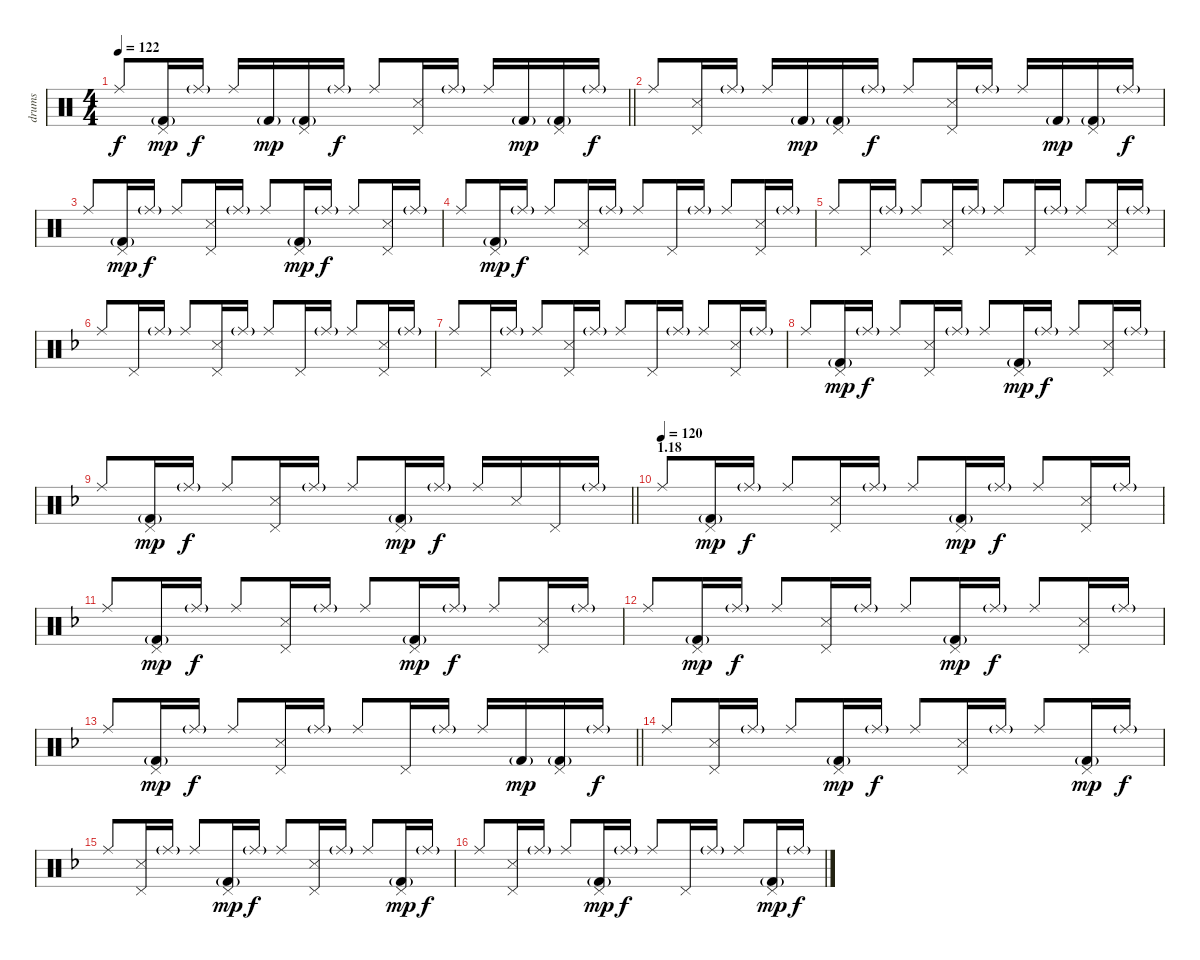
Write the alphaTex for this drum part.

\track ("drums" "drums") {instrument percussion}
\staff {score}
\articulation defaults
\ts (4 4)
\tempo 122
\clef neutral
\barLineRight lightlight
\ks c "Ride (middle)".8{dy f}
("Pedal Hi-Hat (hit)" "Kick (hit) 2"{g}).16{dy mp} "Ride (middle)"{g}.16{dy f} "Ride (middle)".16 "Kick (hit) 2"{g}.16{dy mp} ("Pedal Hi-Hat (hit)" "Kick (hit) 2"{g}).16 "Ride (middle)"{g}.16{dy f} "Ride (middle)".8 ("Pedal Hi-Hat (hit)" "Snare (side stick) 3").16 "Ride (middle)"{g}.16 "Ride (middle)".16 "Kick (hit) 2"{g}.16{dy mp} ("Pedal Hi-Hat (hit)" "Kick (hit) 2"{g}).16 "Ride (middle)"{g}.16{dy f} |
"Ride (middle)".8 ("Pedal Hi-Hat (hit)" "Snare (side stick) 3").16 "Ride (middle)"{g}.16 "Ride (middle)".16 "Kick (hit) 2"{g}.16{dy mp} ("Pedal Hi-Hat (hit)" "Kick (hit) 2"{g}).16 "Ride (middle)"{g}.16{dy f} "Ride (middle)".8 ("Pedal Hi-Hat (hit)" "Snare (side stick) 3").16 "Ride (middle)"{g}.16 "Ride (middle)".16 "Kick (hit) 2"{g}.16{dy mp} ("Pedal Hi-Hat (hit)" "Kick (hit) 2"{g}).16 "Ride (middle)"{g}.16{dy f} |
"Ride (middle)".8 ("Pedal Hi-Hat (hit)" "Kick (hit) 2"{g}).16{dy mp} "Ride (middle)"{g}.16{dy f} "Ride (middle)".8 ("Pedal Hi-Hat (hit)" "Snare (side stick) 3").16 "Ride (middle)"{g}.16 "Ride (middle)".8 ("Pedal Hi-Hat (hit)" "Kick (hit) 2"{g}).16{dy mp} "Ride (middle)"{g}.16{dy f} "Ride (middle)".8 ("Pedal Hi-Hat (hit)" "Snare (side stick) 3").16 "Ride (middle)"{g}.16 |
"Ride (middle)".8 ("Pedal Hi-Hat (hit)" "Kick (hit) 2"{g}).16{dy mp} "Ride (middle)"{g}.16{dy f} "Ride (middle)".8 ("Pedal Hi-Hat (hit)" "Snare (side stick) 3").16 "Ride (middle)"{g}.16 "Ride (middle)".8 "Pedal Hi-Hat (hit)".16 "Ride (middle)"{g}.16 "Ride (middle)".8 ("Pedal Hi-Hat (hit)" "Snare (side stick) 3").16 "Ride (middle)"{g}.16 |
"Ride (middle)".8 "Pedal Hi-Hat (hit)".16 "Ride (middle)"{g}.16 "Ride (middle)".8 ("Pedal Hi-Hat (hit)" "Snare (side stick) 3").16 "Ride (middle)"{g}.16 "Ride (middle)".8 "Pedal Hi-Hat (hit)".16 "Ride (middle)"{g}.16 "Ride (middle)".8 ("Pedal Hi-Hat (hit)" "Snare (side stick) 3").16 "Ride (middle)"{g}.16 |
\ks f "Ride (middle)".8 "Pedal Hi-Hat (hit)".16 "Ride (middle)"{g}.16 "Ride (middle)".8
("Pedal Hi-Hat (hit)" "Snare (side stick) 3").16 "Ride (middle)"{g}.16 "Ride (middle)".8 "Pedal Hi-Hat (hit)".16 "Ride (middle)"{g}.16 "Ride (middle)".8 ("Pedal Hi-Hat (hit)" "Snare (side stick) 3").16 "Ride (middle)"{g}.16 |
"Ride (middle)".8 "Pedal Hi-Hat (hit)".16 "Ride (middle)"{g}.16 "Ride (middle)".8 ("Pedal Hi-Hat (hit)" "Snare (side stick) 3").16 "Ride (middle)"{g}.16 "Ride (middle)".8 "Pedal Hi-Hat (hit)".16 "Ride (middle)"{g}.16 "Ride (middle)".8 ("Pedal Hi-Hat (hit)" "Snare (side stick) 3").16 "Ride (middle)"{g}.16 |
"Ride (middle)".8 ("Pedal Hi-Hat (hit)" "Kick (hit) 2"{g}).16{dy mp} "Ride (middle)"{g}.16{dy f} "Ride (middle)".8 ("Pedal Hi-Hat (hit)" "Snare (side stick) 3").16 "Ride (middle)"{g}.16 "Ride (middle)".8 ("Pedal Hi-Hat (hit)" "Kick (hit) 2"{g}).16{dy mp} "Ride (middle)"{g}.16{dy f} "Ride (middle)".8 ("Pedal Hi-Hat (hit)" "Snare (side stick) 3").16 "Ride (middle)"{g}.16 |
\barLineRight lightlight "Ride (middle)".8
("Pedal Hi-Hat (hit)" "Kick (hit) 2"{g}).16{dy mp} "Ride (middle)"{g}.16{dy f} "Ride (middle)".8 ("Pedal Hi-Hat (hit)" "Snare (side stick) 3").16 "Ride (middle)"{g}.16 "Ride (middle)".8 ("Pedal Hi-Hat (hit)" "Kick (hit) 2"{g}).16{dy mp} "Ride (middle)"{g}.16{dy f} "Ride (middle)".16 "Snare (side stick) 3".16 "Pedal Hi-Hat (hit)".16 "Ride (middle)"{g}.16 |
\section ("" "1.18")
\tempo (120)
"Ride (middle)".8 ("Pedal Hi-Hat (hit)" "Kick (hit) 2"{g}).16{dy mp} "Ride (middle)"{g}.16{dy f} "Ride (middle)".8 ("Pedal Hi-Hat (hit)" "Snare (side stick) 3").16 "Ride (middle)"{g}.16 "Ride (middle)".8 ("Pedal Hi-Hat (hit)" "Kick (hit) 2"{g}).16{dy mp} "Ride (middle)"{g}.16{dy f} "Ride (middle)".8 ("Pedal Hi-Hat (hit)" "Snare (side stick) 3").16 "Ride (middle)"{g}.16 |
"Ride (middle)".8 ("Pedal Hi-Hat (hit)" "Kick (hit) 2"{g}).16{dy mp} "Ride (middle)"{g}.16{dy f} "Ride (middle)".8 ("Pedal Hi-Hat (hit)" "Snare (side stick) 3").16 "Ride (middle)"{g}.16 "Ride (middle)".8 ("Pedal Hi-Hat (hit)" "Kick (hit) 2"{g}).16{dy mp} "Ride (middle)"{g}.16{dy f} "Ride (middle)".8 ("Pedal Hi-Hat (hit)" "Snare (side stick) 3").16 "Ride (middle)"{g}.16 |
"Ride (middle)".8 ("Pedal Hi-Hat (hit)" "Kick (hit) 2"{g}).16{dy mp} "Ride (middle)"{g}.16{dy f} "Ride (middle)".8 ("Pedal Hi-Hat (hit)" "Snare (side stick) 3").16 "Ride (middle)"{g}.16 "Ride (middle)".8 ("Pedal Hi-Hat (hit)" "Kick (hit) 2"{g}).16{dy mp} "Ride (middle)"{g}.16{dy f} "Ride (middle)".8 ("Pedal Hi-Hat (hit)" "Snare (side stick) 3").16 "Ride (middle)"{g}.16 |
\barLineRight lightlight "Ride (middle)".8
("Pedal Hi-Hat (hit)" "Kick (hit) 2"{g}).16{dy mp} "Ride (middle)"{g}.16{dy f} "Ride (middle)".8 ("Pedal Hi-Hat (hit)" "Snare (side stick) 3").16 "Ride (middle)"{g}.16 "Ride (middle)".8 "Pedal Hi-Hat (hit)".16 "Ride (middle)"{g}.16 "Ride (middle)".16 "Kick (hit) 2"{g}.16{dy mp} ("Pedal Hi-Hat (hit)" "Kick (hit) 2"{g}).16 "Ride (middle)"{g}.16{dy f} |
"Ride (middle)".8 ("Pedal Hi-Hat (hit)" "Snare (side stick) 3").16 "Ride (middle)"{g}.16 "Ride (middle)".8 ("Pedal Hi-Hat (hit)" "Kick (hit) 2"{g}).16{dy mp} "Ride (middle)"{g}.16{dy f} "Ride (middle)".8 ("Pedal Hi-Hat (hit)" "Snare (side stick) 3").16 "Ride (middle)"{g}.16 "Ride (middle)".8 ("Pedal Hi-Hat (hit)" "Kick (hit) 2"{g}).16{dy mp} "Ride (middle)"{g}.16{dy f} |
"Ride (middle)".8 ("Pedal Hi-Hat (hit)" "Snare (side stick) 3").16 "Ride (middle)"{g}.16 "Ride (middle)".8 ("Pedal Hi-Hat (hit)" "Kick (hit) 2"{g}).16{dy mp} "Ride (middle)"{g}.16{dy f} "Ride (middle)".8 ("Pedal Hi-Hat (hit)" "Snare (side stick) 3").16 "Ride (middle)"{g}.16 "Ride (middle)".8 ("Pedal Hi-Hat (hit)" "Kick (hit) 2"{g}).16{dy mp} "Ride (middle)"{g}.16{dy f} |
"Ride (middle)".8 ("Pedal Hi-Hat (hit)" "Snare (side stick) 3").16 "Ride (middle)"{g}.16 "Ride (middle)".8 ("Pedal Hi-Hat (hit)" "Kick (hit) 2"{g}).16{dy mp} "Ride (middle)"{g}.16{dy f} "Ride (middle)".8 "Pedal Hi-Hat (hit)".16 "Ride (middle)"{g}.16 "Ride (middle)".8 ("Pedal Hi-Hat (hit)" "Kick (hit) 2"{g}).16{dy mp} "Ride (middle)"{g}.16{dy f}
